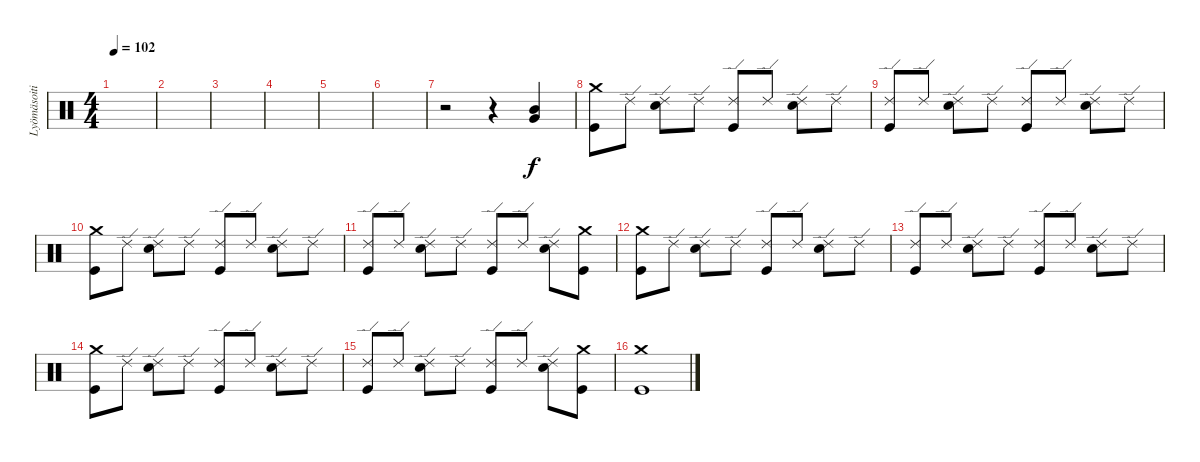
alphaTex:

\track ("Lyömäsoitin" "Lyömäsoiti") {instrument percussion}
\staff {score}
\articulation defaults
\ts (4 4)
\tempo 102
\clef neutral
\ks c
|
|
|
|
|
|
r.2 r.4 ("Very Low Tom (hit)" "Mid Tom (hit)").4 |
("Crash medium (hit)" "Kick (hit)").8 "Ride (edge) 2".8 ("Ride (edge) 2" "Snare (hit) 2").8 "Ride (edge) 2".8 ("Ride (edge) 2" "Kick (hit)").8 "Ride (edge) 2".8 ("Ride (edge) 2" "Snare (hit) 2").8 "Ride (edge) 2".8 |
("Ride (edge) 2" "Kick (hit)").8 "Ride (edge) 2".8 ("Ride (edge) 2" "Snare (hit) 2").8 "Ride (edge) 2".8 ("Ride (edge) 2" "Kick (hit)").8 "Ride (edge) 2".8 ("Ride (edge) 2" "Snare (hit) 2").8 "Ride (edge) 2".8 |
("Crash medium (hit)" "Kick (hit)").8 "Ride (edge) 2".8 ("Ride (edge) 2" "Snare (hit) 2").8 "Ride (edge) 2".8 ("Ride (edge) 2" "Kick (hit)").8 "Ride (edge) 2".8 ("Ride (edge) 2" "Snare (hit) 2").8 "Ride (edge) 2".8 |
("Ride (edge) 2" "Kick (hit)").8 "Ride (edge) 2".8 ("Ride (edge) 2" "Snare (hit) 2").8 "Ride (edge) 2".8 ("Ride (edge) 2" "Kick (hit)").8 "Ride (edge) 2".8 ("Ride (edge) 2" "Snare (hit) 2").8 ("Crash medium (hit)" "Kick (hit)").8 |
("Crash medium (hit)" "Kick (hit)").8 "Ride (edge) 2".8 ("Ride (edge) 2" "Snare (hit) 2").8 "Ride (edge) 2".8 ("Ride (edge) 2" "Kick (hit)").8 "Ride (edge) 2".8 ("Ride (edge) 2" "Snare (hit) 2").8 "Ride (edge) 2".8 |
("Ride (edge) 2" "Kick (hit)").8 "Ride (edge) 2".8 ("Ride (edge) 2" "Snare (hit) 2").8 "Ride (edge) 2".8 ("Ride (edge) 2" "Kick (hit)").8 "Ride (edge) 2".8 ("Ride (edge) 2" "Snare (hit) 2").8 "Ride (edge) 2".8 |
("Crash medium (hit)" "Kick (hit)").8 "Ride (edge) 2".8 ("Ride (edge) 2" "Snare (hit) 2").8 "Ride (edge) 2".8 ("Ride (edge) 2" "Kick (hit)").8 "Ride (edge) 2".8 ("Ride (edge) 2" "Snare (hit) 2").8 "Ride (edge) 2".8 |
("Ride (edge) 2" "Kick (hit)").8 "Ride (edge) 2".8 ("Ride (edge) 2" "Snare (hit) 2").8 "Ride (edge) 2".8 ("Ride (edge) 2" "Kick (hit)").8 "Ride (edge) 2".8 ("Ride (edge) 2" "Snare (hit) 2").8 ("Crash medium (hit)" "Kick (hit)").8 |
("Crash medium (hit)" "Kick (hit)").1
